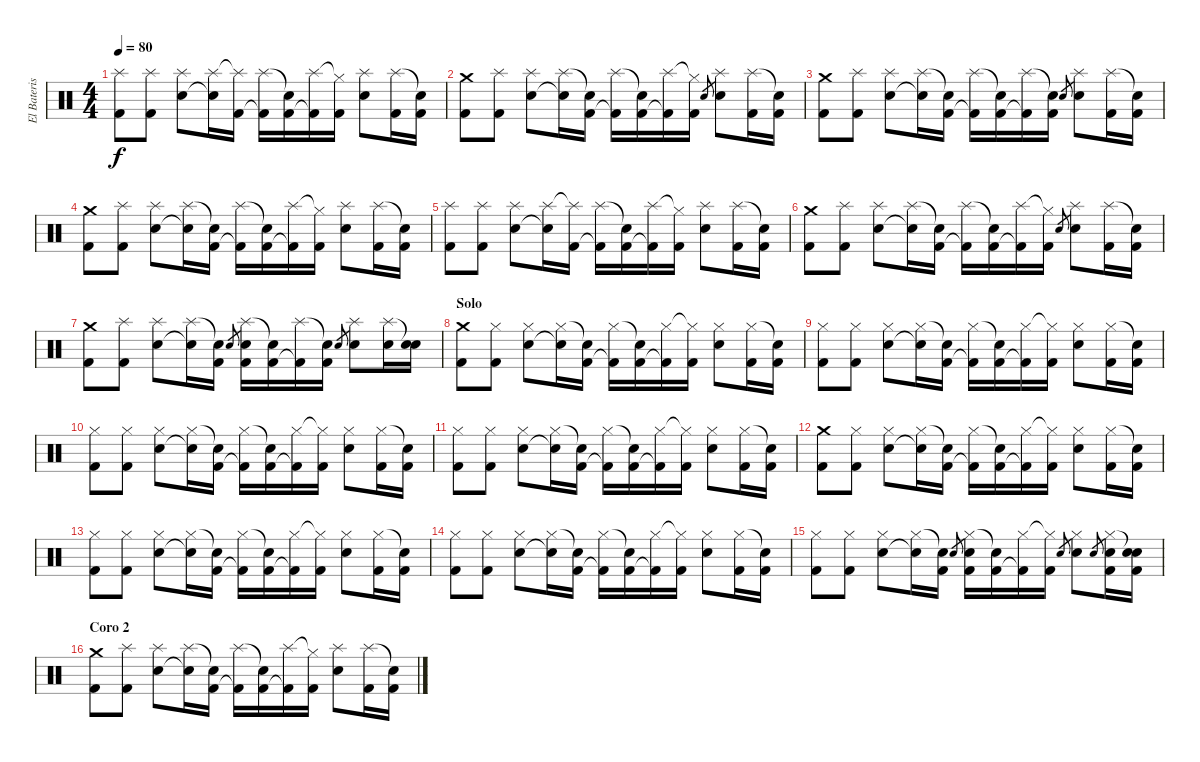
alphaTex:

\track ("El Baterista" "El Bateris") {instrument percussion}
\staff {score}
\articulation defaults
\ts (4 4)
\tempo 80
\clef neutral
\ks c
("Splash (hit)" "Kick (hit) 2").8{dy f} ("Splash (hit)" "Kick (hit) 2").8 ("Splash (hit)" "Electric Snare (hit)").8 ("Splash (hit)" "Snare (hit)"{t}).16 ("Splash (hit)"{t} "Kick (hit) 2").16 ("Splash (hit)" "Kick (hit) 2"{t}).16 ("Snare (hit)"{t} "Kick (hit) 2").16 ("Splash (hit)" "Kick (hit) 2"{t}).16 ("Hi-Hat (closed)"{t} "Kick (hit) 2").16 ("Splash (hit)" "Electric Snare (hit)").8 ("Splash (hit)" "Kick (hit) 2").16 ("Snare (hit)"{t} "Kick (hit) 2").16 |
("Crash medium (hit)" "Kick (hit) 2").8 ("Splash (hit)" "Kick (hit) 2").8 ("Splash (hit)" "Electric Snare (hit)").8 ("Splash (hit)" "Snare (hit)"{t}).16 ("Snare (hit)"{t} "Kick (hit) 2").16 ("Splash (hit)" "Kick (hit) 2"{t}).16 ("Snare (hit)"{t} "Kick (hit) 2").16 ("Splash (hit)" "Kick (hit) 2"{t}).16 ("Hi-Hat (closed)"{t} "Kick (hit) 2").16 "Electric Snare (hit)".8{gr} ("Splash (hit)" "Electric Snare (hit)").8 ("Splash (hit)" "Kick (hit) 2").16 ("Snare (hit)"{t} "Kick (hit) 2").16 |
("Crash medium (hit)" "Kick (hit) 2").8 ("Splash (hit)" "Kick (hit) 2").8 ("Splash (hit)" "Electric Snare (hit)").8 ("Splash (hit)" "Snare (hit)"{t}).16 ("Snare (hit)"{t} "Kick (hit) 2").16 ("Splash (hit)" "Kick (hit) 2"{t}).16 ("Snare (hit)"{t} "Kick (hit) 2").16 ("Splash (hit)" "Kick (hit) 2"{t}).16 ("Snare (hit)"{t} "Kick (hit) 2").16 "Electric Snare (hit)".8{gr} ("Splash (hit)" "Electric Snare (hit)").8 ("Splash (hit)" "Kick (hit) 2").16 ("Snare (hit)"{t} "Kick (hit) 2").16 |
("Crash medium (hit)" "Kick (hit) 2").8 ("Splash (hit)" "Kick (hit) 2").8 ("Splash (hit)" "Electric Snare (hit)").8 ("Splash (hit)" "Snare (hit)"{t}).16 ("Snare (hit)"{t} "Kick (hit) 2").16 ("Splash (hit)" "Kick (hit) 2"{t}).16 ("Snare (hit)"{t} "Kick (hit) 2").16 ("Splash (hit)" "Kick (hit) 2"{t}).16 ("Hi-Hat (closed)"{t} "Kick (hit) 2").16 ("Splash (hit)" "Electric Snare (hit)").8 ("Splash (hit)" "Kick (hit) 2").16 ("Snare (hit)"{t} "Kick (hit) 2").16 |
("Splash (hit)" "Kick (hit) 2").8 ("Splash (hit)" "Kick (hit) 2").8 ("Splash (hit)" "Electric Snare (hit)").8 ("Splash (hit)" "Snare (hit)"{t}).16 ("Splash (hit)"{t} "Kick (hit) 2").16 ("Splash (hit)" "Kick (hit) 2"{t}).16 ("Snare (hit)"{t} "Kick (hit) 2").16 ("Splash (hit)" "Kick (hit) 2"{t}).16 ("Hi-Hat (closed)"{t} "Kick (hit) 2").16 ("Splash (hit)" "Electric Snare (hit)").8 ("Splash (hit)" "Kick (hit) 2").16 ("Snare (hit)"{t} "Kick (hit) 2").16 |
("Crash medium (hit)" "Kick (hit) 2").8 ("Splash (hit)" "Kick (hit) 2").8 ("Splash (hit)" "Electric Snare (hit)").8 ("Splash (hit)" "Snare (hit)"{t}).16 ("Snare (hit)"{t} "Kick (hit) 2").16 ("Splash (hit)" "Kick (hit) 2"{t}).16 ("Snare (hit)"{t} "Kick (hit) 2").16 ("Splash (hit)" "Kick (hit) 2"{t}).16 ("Hi-Hat (closed)"{t} "Kick (hit) 2").16 "Electric Snare (hit)".8{gr} ("Splash (hit)" "Electric Snare (hit)").8 ("Splash (hit)" "Kick (hit) 2").16 ("Snare (hit)"{t} "Kick (hit) 2").16 |
("Crash medium (hit)" "Kick (hit) 2").8 ("Splash (hit)" "Kick (hit) 2").8 ("Splash (hit)" "Electric Snare (hit)").8 ("Splash (hit)" "Snare (hit)"{t}).16 ("Snare (hit)"{t} "Kick (hit) 2").16 "Electric Snare (hit)".8{gr} ("Splash (hit)" "Electric Snare (hit)" "Kick (hit) 2").16 ("Snare (hit)"{t} "Kick (hit) 2").16 ("Splash (hit)" "Kick (hit) 2"{t}).16 ("Snare (hit)"{t} "Kick (hit) 2").16 "Electric Snare (hit)".8{gr} ("Splash (hit)" "Electric Snare (hit)").8 ("Splash (hit)" "Electric Snare (hit)").16 ("Snare (hit)"{t} "Electric Snare (hit)").16 |
\section ("" "Solo")
("Crash medium (hit)" "Kick (hit) 2").8 ("Hi-Hat (closed)" "Kick (hit) 2").8 ("Hi-Hat (closed)" "Electric Snare (hit)").8 ("Hi-Hat (closed)" "Snare (hit)"{t}).16 ("Snare (hit)"{t} "Kick (hit) 2").16 ("Hi-Hat (closed)" "Kick (hit) 2"{t}).16 ("Snare (hit)"{t} "Kick (hit) 2").16 ("Hi-Hat (closed)" "Kick (hit) 2"{t}).16 ("Hi-Hat (closed)"{t} "Kick (hit) 2").16 ("Hi-Hat (closed)" "Electric Snare (hit)").8 ("Hi-Hat (closed)" "Kick (hit) 2").16 ("Snare (hit)"{t} "Kick (hit) 2").16 |
("Hi-Hat (closed)" "Kick (hit) 2").8 ("Hi-Hat (closed)" "Kick (hit) 2").8 ("Hi-Hat (closed)" "Electric Snare (hit)").8 ("Hi-Hat (closed)" "Snare (hit)"{t}).16 ("Snare (hit)"{t} "Kick (hit) 2").16 ("Hi-Hat (closed)" "Kick (hit) 2"{t}).16 ("Snare (hit)"{t} "Kick (hit) 2").16 ("Hi-Hat (closed)" "Kick (hit) 2"{t}).16 ("Hi-Hat (closed)"{t} "Kick (hit) 2").16 ("Hi-Hat (closed)" "Electric Snare (hit)").8 ("Hi-Hat (closed)" "Kick (hit) 2").16 ("Snare (hit)"{t} "Kick (hit) 2").16 |
("Hi-Hat (closed)" "Kick (hit) 2").8 ("Hi-Hat (closed)" "Kick (hit) 2").8 ("Hi-Hat (closed)" "Electric Snare (hit)").8 ("Hi-Hat (closed)" "Snare (hit)"{t}).16 ("Snare (hit)"{t} "Kick (hit) 2").16 ("Hi-Hat (closed)" "Kick (hit) 2"{t}).16 ("Snare (hit)"{t} "Kick (hit) 2").16 ("Hi-Hat (closed)" "Kick (hit) 2"{t}).16 ("Hi-Hat (closed)"{t} "Kick (hit) 2").16 ("Hi-Hat (closed)" "Electric Snare (hit)").8 ("Hi-Hat (closed)" "Kick (hit) 2").16 ("Snare (hit)"{t} "Kick (hit) 2").16 |
("Hi-Hat (closed)" "Kick (hit) 2").8 ("Hi-Hat (closed)" "Kick (hit) 2").8 ("Hi-Hat (closed)" "Electric Snare (hit)").8 ("Hi-Hat (closed)" "Snare (hit)"{t}).16 ("Snare (hit)"{t} "Kick (hit) 2").16 ("Hi-Hat (closed)" "Kick (hit) 2"{t}).16 ("Snare (hit)"{t} "Kick (hit) 2").16 ("Hi-Hat (closed)" "Kick (hit) 2"{t}).16 ("Hi-Hat (closed)"{t} "Kick (hit) 2").16 ("Hi-Hat (closed)" "Electric Snare (hit)").8 ("Hi-Hat (closed)" "Kick (hit) 2").16 ("Snare (hit)"{t} "Kick (hit) 2").16 |
("Crash medium (hit)" "Kick (hit) 2").8 ("Hi-Hat (closed)" "Kick (hit) 2").8 ("Hi-Hat (closed)" "Electric Snare (hit)").8 ("Hi-Hat (closed)" "Snare (hit)"{t}).16 ("Snare (hit)"{t} "Kick (hit) 2").16 ("Hi-Hat (closed)" "Kick (hit) 2"{t}).16 ("Snare (hit)"{t} "Kick (hit) 2").16 ("Hi-Hat (closed)" "Kick (hit) 2"{t}).16 ("Hi-Hat (closed)"{t} "Kick (hit) 2").16 ("Hi-Hat (closed)" "Electric Snare (hit)").8 ("Hi-Hat (closed)" "Kick (hit) 2").16 ("Snare (hit)"{t} "Kick (hit) 2").16 |
("Hi-Hat (closed)" "Kick (hit) 2").8 ("Hi-Hat (closed)" "Kick (hit) 2").8 ("Hi-Hat (closed)" "Electric Snare (hit)").8 ("Hi-Hat (closed)" "Snare (hit)"{t}).16 ("Snare (hit)"{t} "Kick (hit) 2").16 ("Hi-Hat (closed)" "Kick (hit) 2"{t}).16 ("Snare (hit)"{t} "Kick (hit) 2").16 ("Hi-Hat (closed)" "Kick (hit) 2"{t}).16 ("Hi-Hat (closed)"{t} "Kick (hit) 2").16 ("Hi-Hat (closed)" "Electric Snare (hit)").8 ("Hi-Hat (closed)" "Kick (hit) 2").16 ("Snare (hit)"{t} "Kick (hit) 2").16 |
("Hi-Hat (closed)" "Kick (hit) 2").8 ("Hi-Hat (closed)" "Kick (hit) 2").8 ("Hi-Hat (closed)" "Electric Snare (hit)").8 ("Hi-Hat (closed)" "Snare (hit)"{t}).16 ("Snare (hit)"{t} "Kick (hit) 2").16 ("Hi-Hat (closed)" "Kick (hit) 2"{t}).16 ("Snare (hit)"{t} "Kick (hit) 2").16 ("Hi-Hat (closed)" "Kick (hit) 2"{t}).16 ("Hi-Hat (closed)"{t} "Kick (hit) 2").16 ("Hi-Hat (closed)" "Electric Snare (hit)").8 ("Hi-Hat (closed)" "Kick (hit) 2").16 ("Snare (hit)"{t} "Kick (hit) 2").16 |
("Hi-Hat (closed)" "Kick (hit) 2").8 ("Hi-Hat (closed)" "Kick (hit) 2").8 ("Hi-Hat (closed)" "Electric Snare (hit)").8 ("Hi-Hat (closed)" "Snare (hit)"{t}).16 ("Snare (hit)"{t} "Kick (hit) 2").16 "Electric Snare (hit)".8{gr} ("Hi-Hat (closed)" "Electric Snare (hit)" "Kick (hit) 2").16 ("Snare (hit)"{t} "Kick (hit) 2").16 ("Hi-Hat (closed)" "Kick (hit) 2"{t}).16 ("Hi-Hat (closed)"{t} "Kick (hit) 2").16 "Electric Snare (hit)".8{gr} ("Hi-Hat (closed)" "Electric Snare (hit)").8 "Electric Snare (hit)".8{gr} ("Hi-Hat (closed)" "Electric Snare (hit)" "Kick (hit) 2").16 ("Snare (hit)"{t} "Electric Snare (hit)" "Kick (hit) 2").16 |
\section ("" "Coro 2")
("Crash medium (hit)" "Kick (hit) 2").8 ("Splash (hit)" "Kick (hit) 2").8 ("Splash (hit)" "Electric Snare (hit)").8 ("Splash (hit)" "Snare (hit)"{t}).16 ("Snare (hit)"{t} "Kick (hit) 2").16 ("Splash (hit)" "Kick (hit) 2"{t}).16 ("Snare (hit)"{t} "Kick (hit) 2").16 ("Splash (hit)" "Kick (hit) 2"{t}).16 ("Hi-Hat (closed)"{t} "Kick (hit) 2").16 ("Splash (hit)" "Electric Snare (hit)").8 ("Splash (hit)" "Kick (hit) 2").16 ("Snare (hit)"{t} "Kick (hit) 2").16
